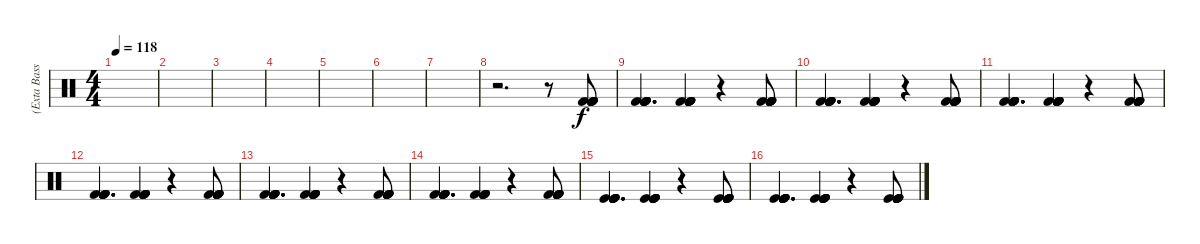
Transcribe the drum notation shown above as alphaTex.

\track ("(Exta Bass Boost)Eddie Fisher" "(Exta Bass") {instrument percussion}
\staff {score}
\articulation defaults
\ts (4 4)
\tempo 118
\clef neutral
\ks c
|
|
|
|
|
|
|
r.2{d} r.8 ("Kick (hit) 2" "Kick (hit) 2" "Kick (hit) 2" "Kick (hit) 2" "Kick (hit) 2" "Kick (hit) 2").8 |
("Kick (hit) 2" "Kick (hit) 2" "Kick (hit) 2" "Kick (hit) 2" "Kick (hit) 2" "Kick (hit) 2").4{d} ("Kick (hit) 2" "Kick (hit) 2" "Kick (hit) 2" "Kick (hit) 2" "Kick (hit) 2" "Kick (hit) 2").4 r.4 ("Kick (hit) 2" "Kick (hit) 2" "Kick (hit) 2" "Kick (hit) 2" "Kick (hit) 2" "Kick (hit) 2").8 |
("Kick (hit) 2" "Kick (hit) 2" "Kick (hit) 2" "Kick (hit) 2" "Kick (hit) 2" "Kick (hit) 2").4{d} ("Kick (hit) 2" "Kick (hit) 2" "Kick (hit) 2" "Kick (hit) 2" "Kick (hit) 2" "Kick (hit) 2").4 r.4 ("Kick (hit) 2" "Kick (hit) 2" "Kick (hit) 2" "Kick (hit) 2" "Kick (hit) 2" "Kick (hit) 2").8 |
("Kick (hit) 2" "Kick (hit) 2" "Kick (hit) 2" "Kick (hit) 2" "Kick (hit) 2" "Kick (hit) 2").4{d} ("Kick (hit) 2" "Kick (hit) 2" "Kick (hit) 2" "Kick (hit) 2" "Kick (hit) 2" "Kick (hit) 2").4 r.4 ("Kick (hit) 2" "Kick (hit) 2" "Kick (hit) 2" "Kick (hit) 2" "Kick (hit) 2" "Kick (hit) 2").8 |
("Kick (hit) 2" "Kick (hit) 2" "Kick (hit) 2" "Kick (hit) 2" "Kick (hit) 2" "Kick (hit) 2").4{d} ("Kick (hit) 2" "Kick (hit) 2" "Kick (hit) 2" "Kick (hit) 2" "Kick (hit) 2" "Kick (hit) 2").4 r.4 ("Kick (hit) 2" "Kick (hit) 2" "Kick (hit) 2" "Kick (hit) 2" "Kick (hit) 2" "Kick (hit) 2").8 |
("Kick (hit) 2" "Kick (hit) 2" "Kick (hit) 2" "Kick (hit) 2" "Kick (hit) 2" "Kick (hit) 2").4{d} ("Kick (hit) 2" "Kick (hit) 2" "Kick (hit) 2" "Kick (hit) 2" "Kick (hit) 2" "Kick (hit) 2").4 r.4 ("Kick (hit) 2" "Kick (hit) 2" "Kick (hit) 2" "Kick (hit) 2" "Kick (hit) 2" "Kick (hit) 2").8 |
("Kick (hit) 2" "Kick (hit) 2" "Kick (hit) 2" "Kick (hit) 2" "Kick (hit) 2" "Kick (hit) 2").4{d} ("Kick (hit) 2" "Kick (hit) 2" "Kick (hit) 2" "Kick (hit) 2" "Kick (hit) 2" "Kick (hit) 2").4 r.4 ("Kick (hit) 2" "Kick (hit) 2" "Kick (hit) 2" "Kick (hit) 2" "Kick (hit) 2" "Kick (hit) 2").8 |
("Kick (hit)" "Kick (hit)" "Kick (hit)" "Kick (hit)" "Kick (hit)" "Kick (hit)").4{d} ("Kick (hit)" "Kick (hit)" "Kick (hit)" "Kick (hit)" "Kick (hit)" "Kick (hit)").4 r.4 ("Kick (hit)" "Kick (hit)" "Kick (hit)" "Kick (hit)" "Kick (hit)" "Kick (hit)").8 |
("Kick (hit)" "Kick (hit)" "Kick (hit)" "Kick (hit)" "Kick (hit)" "Kick (hit)").4{d} ("Kick (hit)" "Kick (hit)" "Kick (hit)" "Kick (hit)" "Kick (hit)" "Kick (hit)").4 r.4 ("Kick (hit)" "Kick (hit)" "Kick (hit)" "Kick (hit)" "Kick (hit)" "Kick (hit)").8
